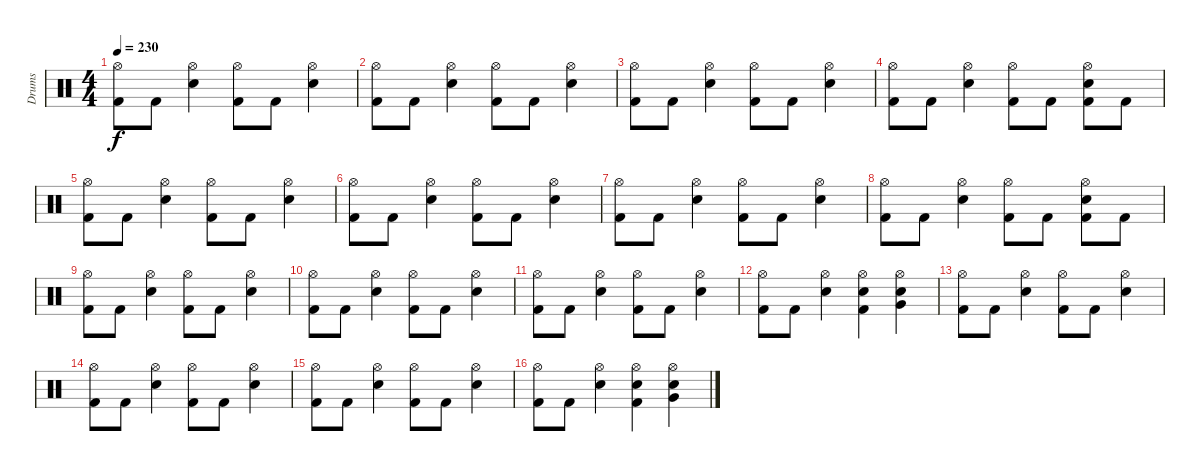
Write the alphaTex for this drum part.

\track ("Drums" "Drums") {instrument percussion}
\staff {score}
\articulation defaults
\ts (4 4)
\tempo 230
\clef neutral
\ks c
("Hi-Hat (open)" "Kick (hit) 2").8{dy f} "Kick (hit) 2".8 ("Hi-Hat (open)" "Electric Snare (hit)").4 ("Hi-Hat (open)" "Kick (hit) 2").8 "Kick (hit) 2".8 ("Hi-Hat (open)" "Electric Snare (hit)").4 |
("Hi-Hat (open)" "Kick (hit) 2").8 "Kick (hit) 2".8 ("Hi-Hat (open)" "Electric Snare (hit)").4 ("Hi-Hat (open)" "Kick (hit) 2").8 "Kick (hit) 2".8 ("Hi-Hat (open)" "Electric Snare (hit)").4 |
("Hi-Hat (open)" "Kick (hit) 2").8 "Kick (hit) 2".8 ("Hi-Hat (open)" "Electric Snare (hit)").4 ("Hi-Hat (open)" "Kick (hit) 2").8 "Kick (hit) 2".8 ("Hi-Hat (open)" "Electric Snare (hit)").4 |
("Hi-Hat (open)" "Kick (hit) 2").8 "Kick (hit) 2".8 ("Hi-Hat (open)" "Electric Snare (hit)").4 ("Hi-Hat (open)" "Kick (hit) 2").8 "Kick (hit) 2".8 ("Hi-Hat (open)" "Electric Snare (hit)" "Kick (hit) 2").8 "Kick (hit) 2".8 |
("Hi-Hat (open)" "Kick (hit) 2").8 "Kick (hit) 2".8 ("Hi-Hat (open)" "Electric Snare (hit)").4 ("Hi-Hat (open)" "Kick (hit) 2").8 "Kick (hit) 2".8 ("Hi-Hat (open)" "Electric Snare (hit)").4 |
("Hi-Hat (open)" "Kick (hit) 2").8 "Kick (hit) 2".8 ("Hi-Hat (open)" "Electric Snare (hit)").4 ("Hi-Hat (open)" "Kick (hit) 2").8 "Kick (hit) 2".8 ("Hi-Hat (open)" "Electric Snare (hit)").4 |
("Hi-Hat (open)" "Kick (hit) 2").8 "Kick (hit) 2".8 ("Hi-Hat (open)" "Electric Snare (hit)").4 ("Hi-Hat (open)" "Kick (hit) 2").8 "Kick (hit) 2".8 ("Hi-Hat (open)" "Electric Snare (hit)").4 |
("Hi-Hat (open)" "Kick (hit) 2").8 "Kick (hit) 2".8 ("Hi-Hat (open)" "Electric Snare (hit)").4 ("Hi-Hat (open)" "Kick (hit) 2").8 "Kick (hit) 2".8 ("Hi-Hat (open)" "Electric Snare (hit)" "Kick (hit) 2").8 "Kick (hit) 2".8 |
("Hi-Hat (open)" "Kick (hit) 2").8 "Kick (hit) 2".8 ("Hi-Hat (open)" "Electric Snare (hit)").4 ("Hi-Hat (open)" "Kick (hit) 2").8 "Kick (hit) 2".8 ("Hi-Hat (open)" "Electric Snare (hit)").4 |
("Hi-Hat (open)" "Kick (hit) 2").8 "Kick (hit) 2".8 ("Hi-Hat (open)" "Electric Snare (hit)").4 ("Hi-Hat (open)" "Kick (hit) 2").8 "Kick (hit) 2".8 ("Hi-Hat (open)" "Electric Snare (hit)").4 |
("Hi-Hat (open)" "Kick (hit) 2").8 "Kick (hit) 2".8 ("Hi-Hat (open)" "Electric Snare (hit)").4 ("Hi-Hat (open)" "Kick (hit) 2").8 "Kick (hit) 2".8 ("Hi-Hat (open)" "Electric Snare (hit)").4 |
("Hi-Hat (open)" "Kick (hit) 2").8 "Kick (hit) 2".8 ("Hi-Hat (open)" "Electric Snare (hit)").4 ("Hi-Hat (open)" "Electric Snare (hit)" "Kick (hit) 2").4 ("Hi-Hat (open)" "Electric Snare (hit)" "Very Low Tom (hit)").4 |
("Hi-Hat (open)" "Kick (hit) 2").8 "Kick (hit) 2".8 ("Hi-Hat (open)" "Electric Snare (hit)").4 ("Hi-Hat (open)" "Kick (hit) 2").8 "Kick (hit) 2".8 ("Hi-Hat (open)" "Electric Snare (hit)").4 |
("Hi-Hat (open)" "Kick (hit) 2").8 "Kick (hit) 2".8 ("Hi-Hat (open)" "Electric Snare (hit)").4 ("Hi-Hat (open)" "Kick (hit) 2").8 "Kick (hit) 2".8 ("Hi-Hat (open)" "Electric Snare (hit)").4 |
("Hi-Hat (open)" "Kick (hit) 2").8 "Kick (hit) 2".8 ("Hi-Hat (open)" "Electric Snare (hit)").4 ("Hi-Hat (open)" "Kick (hit) 2").8 "Kick (hit) 2".8 ("Hi-Hat (open)" "Electric Snare (hit)").4 |
("Hi-Hat (open)" "Kick (hit) 2").8 "Kick (hit) 2".8 ("Hi-Hat (open)" "Electric Snare (hit)").4 ("Hi-Hat (open)" "Electric Snare (hit)" "Kick (hit) 2").4 ("Hi-Hat (open)" "Electric Snare (hit)" "Very Low Tom (hit)").4
